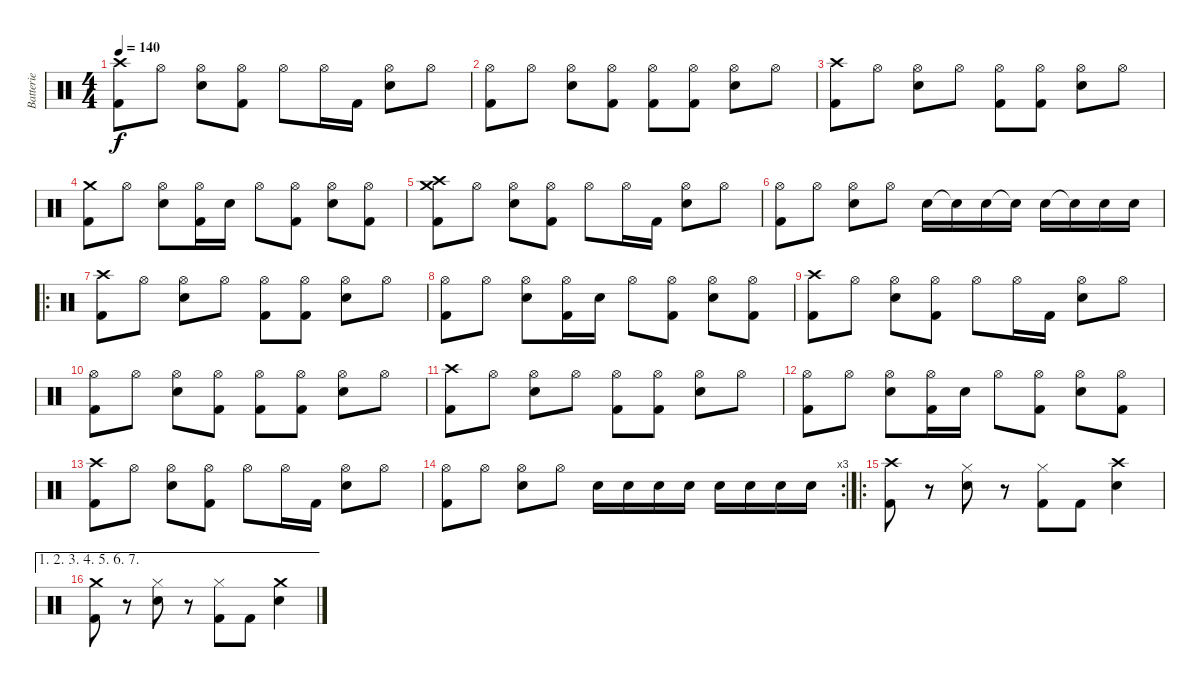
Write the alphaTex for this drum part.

\track ("Batterie" "Batterie") {instrument percussion}
\staff {score}
\articulation defaults
\ts (4 4)
\tempo 140
\clef neutral
\ks c
("Crash high (hit)" "Kick (hit) 2").8{dy f} "Hi-Hat (open)".8 ("Hi-Hat (open)" "Snare (hit) 2").8 ("Hi-Hat (open)" "Kick (hit) 2").8 "Hi-Hat (open)".8 "Hi-Hat (open)".16 "Kick (hit) 2".16 ("Hi-Hat (open)" "Snare (hit) 2").8 "Hi-Hat (open)".8 |
("Hi-Hat (open)" "Kick (hit) 2").8 "Hi-Hat (open)".8 ("Hi-Hat (open)" "Snare (hit) 2").8 ("Hi-Hat (open)" "Kick (hit) 2").8 ("Hi-Hat (open)" "Kick (hit) 2").8 ("Hi-Hat (open)" "Kick (hit) 2").8 ("Hi-Hat (open)" "Snare (hit) 2").8 "Hi-Hat (open)".8 |
("Crash high (hit)" "Kick (hit) 2").8 "Hi-Hat (open)".8 ("Hi-Hat (open)" "Snare (hit) 2").8 "Hi-Hat (open)".8 ("Hi-Hat (open)" "Kick (hit) 2").8 ("Hi-Hat (open)" "Kick (hit) 2").8 ("Hi-Hat (open)" "Snare (hit) 2").8 "Hi-Hat (open)".8 |
("Crash medium (hit)" "Kick (hit) 2").8 "Hi-Hat (open)".8 ("Hi-Hat (open)" "Snare (hit) 2").8 ("Hi-Hat (open)" "Kick (hit) 2").16 "Snare (hit) 2".16 "Hi-Hat (open)".8 ("Hi-Hat (open)" "Kick (hit) 2").8 ("Hi-Hat (open)" "Snare (hit) 2").8 ("Hi-Hat (open)" "Kick (hit) 2").8 |
("Crash high (hit)" "Crash medium (hit)" "Kick (hit) 2").8 "Hi-Hat (open)".8 ("Hi-Hat (open)" "Snare (hit) 2").8 ("Hi-Hat (open)" "Kick (hit) 2").8 "Hi-Hat (open)".8 "Hi-Hat (open)".16 "Kick (hit) 2".16 ("Hi-Hat (open)" "Snare (hit) 2").8 "Hi-Hat (open)".8 |
("Hi-Hat (open)" "Kick (hit) 2").8 "Hi-Hat (open)".8 ("Hi-Hat (open)" "Snare (hit) 2").8 "Hi-Hat (open)".8 "Snare (hit) 2".16 "Snare (hit) 2"{t}.16 "Snare (hit) 2".16 "Snare (hit) 2"{t}.16 "Snare (hit) 2".16 "Snare (hit) 2"{t}.16 "Snare (hit) 2".16 "Snare (hit) 2".16 |
\ro
("Crash high (hit)" "Kick (hit) 2").8 "Hi-Hat (open)".8 ("Hi-Hat (open)" "Snare (hit) 2").8 "Hi-Hat (open)".8 ("Hi-Hat (open)" "Kick (hit) 2").8 ("Hi-Hat (open)" "Kick (hit) 2").8 ("Hi-Hat (open)" "Snare (hit) 2").8 "Hi-Hat (open)".8 |
("Hi-Hat (open)" "Kick (hit) 2").8 "Hi-Hat (open)".8 ("Hi-Hat (open)" "Snare (hit) 2").8 ("Hi-Hat (open)" "Kick (hit) 2").16 "Snare (hit) 2".16 "Hi-Hat (open)".8 ("Hi-Hat (open)" "Kick (hit) 2").8 ("Hi-Hat (open)" "Snare (hit) 2").8 ("Hi-Hat (open)" "Kick (hit) 2").8 |
("Crash high (hit)" "Kick (hit) 2").8 "Hi-Hat (open)".8 ("Hi-Hat (open)" "Snare (hit) 2").8 ("Hi-Hat (open)" "Kick (hit) 2").8 "Hi-Hat (open)".8 "Hi-Hat (open)".16 "Kick (hit) 2".16 ("Hi-Hat (open)" "Snare (hit) 2").8 "Hi-Hat (open)".8 |
("Hi-Hat (open)" "Kick (hit) 2").8 "Hi-Hat (open)".8 ("Hi-Hat (open)" "Snare (hit) 2").8 ("Hi-Hat (open)" "Kick (hit) 2").8 ("Hi-Hat (open)" "Kick (hit) 2").8 ("Hi-Hat (open)" "Kick (hit) 2").8 ("Hi-Hat (open)" "Snare (hit) 2").8 "Hi-Hat (open)".8 |
("Crash high (hit)" "Kick (hit) 2").8 "Hi-Hat (open)".8 ("Hi-Hat (open)" "Snare (hit) 2").8 "Hi-Hat (open)".8 ("Hi-Hat (open)" "Kick (hit) 2").8 ("Hi-Hat (open)" "Kick (hit) 2").8 ("Hi-Hat (open)" "Snare (hit) 2").8 "Hi-Hat (open)".8 |
("Hi-Hat (open)" "Kick (hit) 2").8 "Hi-Hat (open)".8 ("Hi-Hat (open)" "Snare (hit) 2").8 ("Hi-Hat (open)" "Kick (hit) 2").16 "Snare (hit) 2".16 "Hi-Hat (open)".8 ("Hi-Hat (open)" "Kick (hit) 2").8 ("Hi-Hat (open)" "Snare (hit) 2").8 ("Hi-Hat (open)" "Kick (hit) 2").8 |
("Crash high (hit)" "Kick (hit) 2").8 "Hi-Hat (open)".8 ("Hi-Hat (open)" "Snare (hit) 2").8 ("Hi-Hat (open)" "Kick (hit) 2").8 "Hi-Hat (open)".8 "Hi-Hat (open)".16 "Kick (hit) 2".16 ("Hi-Hat (open)" "Snare (hit) 2").8 "Hi-Hat (open)".8 |
\rc 3
("Hi-Hat (open)" "Kick (hit) 2").8 "Hi-Hat (open)".8 ("Hi-Hat (open)" "Snare (hit) 2").8 "Hi-Hat (open)".8 "Snare (hit) 2".16 "Snare (hit) 2".16 "Snare (hit) 2".16 "Snare (hit) 2".16 "Snare (hit) 2".16 "Snare (hit) 2".16 "Snare (hit) 2".16 "Snare (hit) 2".16 |
\ro
("Crash high (hit)" "Kick (hit) 2").8 r.8 ("Hi-Hat (closed)" "Snare (hit) 2").8 r.8 ("Hi-Hat (closed)" "Kick (hit) 2").8 "Kick (hit) 2".8 ("Crash high (hit)" "Snare (hit) 2").4 |
\ae (1 2 3 4 5 6 7)
("Crash medium (hit)" "Kick (hit) 2").8 r.8 ("Hi-Hat (closed)" "Snare (hit) 2").8 r.8 ("Hi-Hat (closed)" "Kick (hit) 2").8 "Kick (hit) 2".8 ("Crash medium (hit)" "Snare (hit) 2").4
